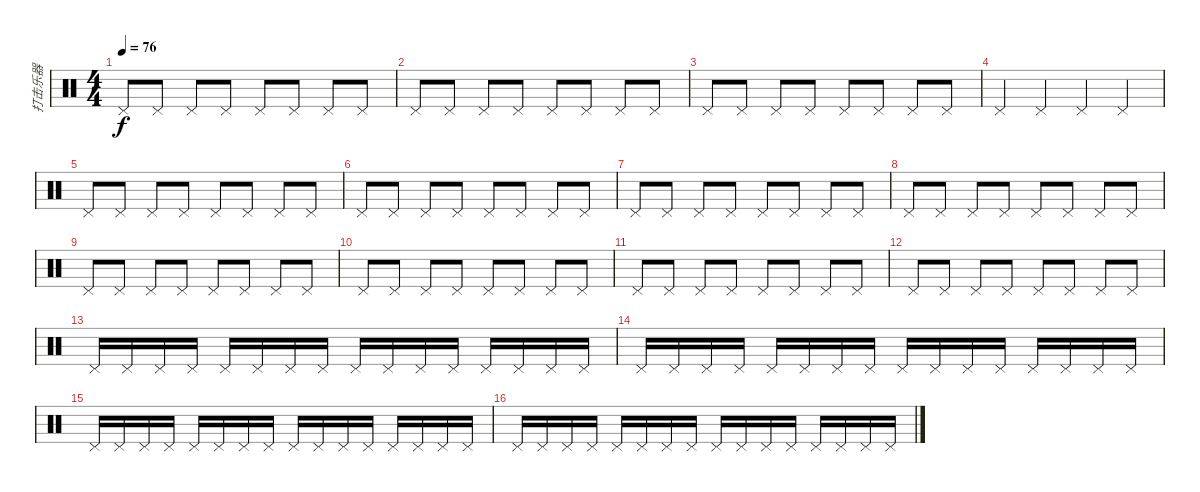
\track ("打击乐器" "打击乐器") {instrument percussion}
\staff {score}
\articulation defaults
\ts (4 4)
\tempo 76
\clef neutral
\ks c "Pedal Hi-Hat (hit)".8{dy f} "Pedal Hi-Hat (hit)".8 "Pedal Hi-Hat (hit)".8 "Pedal Hi-Hat (hit)".8 "Pedal Hi-Hat (hit)".8 "Pedal Hi-Hat (hit)".8 "Pedal Hi-Hat (hit)".8 "Pedal Hi-Hat (hit)".8
|
"Pedal Hi-Hat (hit)".8 "Pedal Hi-Hat (hit)".8 "Pedal Hi-Hat (hit)".8 "Pedal Hi-Hat (hit)".8 "Pedal Hi-Hat (hit)".8 "Pedal Hi-Hat (hit)".8 "Pedal Hi-Hat (hit)".8 "Pedal Hi-Hat (hit)".8 |
"Pedal Hi-Hat (hit)".8 "Pedal Hi-Hat (hit)".8 "Pedal Hi-Hat (hit)".8 "Pedal Hi-Hat (hit)".8 "Pedal Hi-Hat (hit)".8 "Pedal Hi-Hat (hit)".8 "Pedal Hi-Hat (hit)".8 "Pedal Hi-Hat (hit)".8 |
"Pedal Hi-Hat (hit)".4 "Pedal Hi-Hat (hit)".4 "Pedal Hi-Hat (hit)".4 "Pedal Hi-Hat (hit)".4 |
"Pedal Hi-Hat (hit)".8 "Pedal Hi-Hat (hit)".8 "Pedal Hi-Hat (hit)".8 "Pedal Hi-Hat (hit)".8 "Pedal Hi-Hat (hit)".8 "Pedal Hi-Hat (hit)".8 "Pedal Hi-Hat (hit)".8 "Pedal Hi-Hat (hit)".8 |
"Pedal Hi-Hat (hit)".8 "Pedal Hi-Hat (hit)".8 "Pedal Hi-Hat (hit)".8 "Pedal Hi-Hat (hit)".8 "Pedal Hi-Hat (hit)".8 "Pedal Hi-Hat (hit)".8 "Pedal Hi-Hat (hit)".8 "Pedal Hi-Hat (hit)".8 |
"Pedal Hi-Hat (hit)".8 "Pedal Hi-Hat (hit)".8 "Pedal Hi-Hat (hit)".8 "Pedal Hi-Hat (hit)".8 "Pedal Hi-Hat (hit)".8 "Pedal Hi-Hat (hit)".8 "Pedal Hi-Hat (hit)".8 "Pedal Hi-Hat (hit)".8 |
"Pedal Hi-Hat (hit)".8 "Pedal Hi-Hat (hit)".8 "Pedal Hi-Hat (hit)".8 "Pedal Hi-Hat (hit)".8 "Pedal Hi-Hat (hit)".8 "Pedal Hi-Hat (hit)".8 "Pedal Hi-Hat (hit)".8 "Pedal Hi-Hat (hit)".8 |
"Pedal Hi-Hat (hit)".8 "Pedal Hi-Hat (hit)".8 "Pedal Hi-Hat (hit)".8 "Pedal Hi-Hat (hit)".8 "Pedal Hi-Hat (hit)".8 "Pedal Hi-Hat (hit)".8 "Pedal Hi-Hat (hit)".8 "Pedal Hi-Hat (hit)".8 |
"Pedal Hi-Hat (hit)".8 "Pedal Hi-Hat (hit)".8 "Pedal Hi-Hat (hit)".8 "Pedal Hi-Hat (hit)".8 "Pedal Hi-Hat (hit)".8 "Pedal Hi-Hat (hit)".8 "Pedal Hi-Hat (hit)".8 "Pedal Hi-Hat (hit)".8 |
"Pedal Hi-Hat (hit)".8 "Pedal Hi-Hat (hit)".8 "Pedal Hi-Hat (hit)".8 "Pedal Hi-Hat (hit)".8 "Pedal Hi-Hat (hit)".8 "Pedal Hi-Hat (hit)".8 "Pedal Hi-Hat (hit)".8 "Pedal Hi-Hat (hit)".8 |
"Pedal Hi-Hat (hit)".8 "Pedal Hi-Hat (hit)".8 "Pedal Hi-Hat (hit)".8 "Pedal Hi-Hat (hit)".8 "Pedal Hi-Hat (hit)".8 "Pedal Hi-Hat (hit)".8 "Pedal Hi-Hat (hit)".8 "Pedal Hi-Hat (hit)".8 |
"Pedal Hi-Hat (hit)".16 "Pedal Hi-Hat (hit)".16 "Pedal Hi-Hat (hit)".16 "Pedal Hi-Hat (hit)".16 "Pedal Hi-Hat (hit)".16 "Pedal Hi-Hat (hit)".16 "Pedal Hi-Hat (hit)".16 "Pedal Hi-Hat (hit)".16 "Pedal Hi-Hat (hit)".16 "Pedal Hi-Hat (hit)".16 "Pedal Hi-Hat (hit)".16 "Pedal Hi-Hat (hit)".16 "Pedal Hi-Hat (hit)".16 "Pedal Hi-Hat (hit)".16 "Pedal Hi-Hat (hit)".16 "Pedal Hi-Hat (hit)".16 |
"Pedal Hi-Hat (hit)".16 "Pedal Hi-Hat (hit)".16 "Pedal Hi-Hat (hit)".16 "Pedal Hi-Hat (hit)".16 "Pedal Hi-Hat (hit)".16 "Pedal Hi-Hat (hit)".16 "Pedal Hi-Hat (hit)".16 "Pedal Hi-Hat (hit)".16 "Pedal Hi-Hat (hit)".16 "Pedal Hi-Hat (hit)".16 "Pedal Hi-Hat (hit)".16 "Pedal Hi-Hat (hit)".16 "Pedal Hi-Hat (hit)".16 "Pedal Hi-Hat (hit)".16 "Pedal Hi-Hat (hit)".16 "Pedal Hi-Hat (hit)".16 |
"Pedal Hi-Hat (hit)".16 "Pedal Hi-Hat (hit)".16 "Pedal Hi-Hat (hit)".16 "Pedal Hi-Hat (hit)".16 "Pedal Hi-Hat (hit)".16 "Pedal Hi-Hat (hit)".16 "Pedal Hi-Hat (hit)".16 "Pedal Hi-Hat (hit)".16 "Pedal Hi-Hat (hit)".16 "Pedal Hi-Hat (hit)".16 "Pedal Hi-Hat (hit)".16 "Pedal Hi-Hat (hit)".16 "Pedal Hi-Hat (hit)".16 "Pedal Hi-Hat (hit)".16 "Pedal Hi-Hat (hit)".16 "Pedal Hi-Hat (hit)".16 |
"Pedal Hi-Hat (hit)".16 "Pedal Hi-Hat (hit)".16 "Pedal Hi-Hat (hit)".16 "Pedal Hi-Hat (hit)".16 "Pedal Hi-Hat (hit)".16 "Pedal Hi-Hat (hit)".16 "Pedal Hi-Hat (hit)".16 "Pedal Hi-Hat (hit)".16 "Pedal Hi-Hat (hit)".16 "Pedal Hi-Hat (hit)".16 "Pedal Hi-Hat (hit)".16 "Pedal Hi-Hat (hit)".16 "Pedal Hi-Hat (hit)".16 "Pedal Hi-Hat (hit)".16 "Pedal Hi-Hat (hit)".16 "Pedal Hi-Hat (hit)".16
